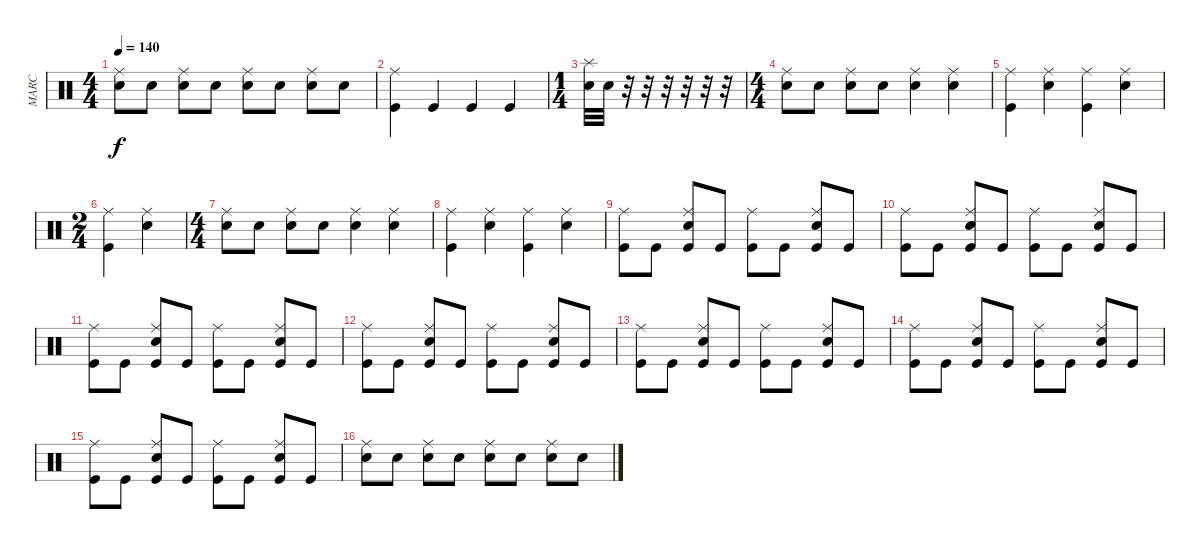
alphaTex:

\track ("MARC" "MARC") {instrument percussion}
\staff {score}
\articulation defaults
\ts (4 4)
\tempo 140
\clef neutral
\ks c
("Snare (hit) 2" "Ride (middle)").8{dy f} "Snare (hit) 2".8 ("Snare (hit) 2" "Ride (middle)").8 "Snare (hit) 2".8 ("Snare (hit) 2" "Ride (middle)").8 "Snare (hit) 2".8 ("Snare (hit) 2" "Ride (middle)").8 "Snare (hit) 2".8 |
("Kick (hit)" "Ride (middle)").4 "Kick (hit)".4 "Kick (hit)".4 "Kick (hit)".4 |
\ts (1 4)
("Snare (hit) 2" "Splash (hit)").32 "Snare (hit) 2".32 r.32 r.32 r.32 r.32 r.32 r.32 |
\ts (4 4)
("Snare (hit) 2" "Ride (middle)").8 "Snare (hit) 2".8 ("Snare (hit) 2" "Ride (middle)").8 "Snare (hit) 2".8 ("Snare (hit) 2" "Ride (middle)").4 ("Snare (hit) 2" "Ride (middle)").4 |
("Kick (hit)" "Ride (middle)").4 ("Snare (hit) 2" "Ride (middle)").4 ("Kick (hit)" "Ride (middle)").4 ("Snare (hit) 2" "Ride (middle)").4 |
\ts (2 4)
("Kick (hit)" "Ride (middle)").4 ("Snare (hit) 2" "Ride (middle)").4 |
\ts (4 4)
("Snare (hit) 2" "Ride (middle)").8 "Snare (hit) 2".8 ("Snare (hit) 2" "Ride (middle)").8 "Snare (hit) 2".8 ("Snare (hit) 2" "Ride (middle)").4 ("Snare (hit) 2" "Ride (middle)").4 |
("Kick (hit)" "Ride (middle)").4 ("Snare (hit) 2" "Ride (middle)").4 ("Kick (hit)" "Ride (middle)").4 ("Snare (hit) 2" "Ride (middle)").4 |
("Kick (hit)" "Ride (middle)").8 "Kick (hit)".8 ("Kick (hit)" "Ride (middle)" "Snare (hit) 2").8 "Kick (hit)".8 ("Kick (hit)" "Ride (middle)").8 "Kick (hit)".8 ("Kick (hit)" "Ride (middle)" "Snare (hit) 2").8 "Kick (hit)".8 |
("Kick (hit)" "Ride (middle)").8 "Kick (hit)".8 ("Kick (hit)" "Ride (middle)" "Snare (hit) 2").8 "Kick (hit)".8 ("Kick (hit)" "Ride (middle)").8 "Kick (hit)".8 ("Kick (hit)" "Ride (middle)" "Snare (hit) 2").8 "Kick (hit)".8 |
("Kick (hit)" "Ride (middle)").8 "Kick (hit)".8 ("Kick (hit)" "Ride (middle)" "Snare (hit) 2").8 "Kick (hit)".8 ("Kick (hit)" "Ride (middle)").8 "Kick (hit)".8 ("Kick (hit)" "Ride (middle)" "Snare (hit) 2").8 "Kick (hit)".8 |
("Kick (hit)" "Ride (middle)").8 "Kick (hit)".8 ("Kick (hit)" "Ride (middle)" "Snare (hit) 2").8 "Kick (hit)".8 ("Kick (hit)" "Ride (middle)").8 "Kick (hit)".8 ("Kick (hit)" "Ride (middle)" "Snare (hit) 2").8 "Kick (hit)".8 |
("Kick (hit)" "Ride (middle)").8 "Kick (hit)".8 ("Kick (hit)" "Ride (middle)" "Snare (hit) 2").8 "Kick (hit)".8 ("Kick (hit)" "Ride (middle)").8 "Kick (hit)".8 ("Kick (hit)" "Ride (middle)" "Snare (hit) 2").8 "Kick (hit)".8 |
("Kick (hit)" "Ride (middle)").8 "Kick (hit)".8 ("Kick (hit)" "Ride (middle)" "Snare (hit) 2").8 "Kick (hit)".8 ("Kick (hit)" "Ride (middle)").8 "Kick (hit)".8 ("Kick (hit)" "Ride (middle)" "Snare (hit) 2").8 "Kick (hit)".8 |
("Kick (hit)" "Ride (middle)").8 "Kick (hit)".8 ("Kick (hit)" "Ride (middle)" "Snare (hit) 2").8 "Kick (hit)".8 ("Kick (hit)" "Ride (middle)").8 "Kick (hit)".8 ("Kick (hit)" "Ride (middle)" "Snare (hit) 2").8 "Kick (hit)".8 |
("Snare (hit) 2" "Ride (middle)").8 "Snare (hit) 2".8 ("Snare (hit) 2" "Ride (middle)").8 "Snare (hit) 2".8 ("Snare (hit) 2" "Ride (middle)").8 "Snare (hit) 2".8 ("Snare (hit) 2" "Ride (middle)").8 "Snare (hit) 2".8
